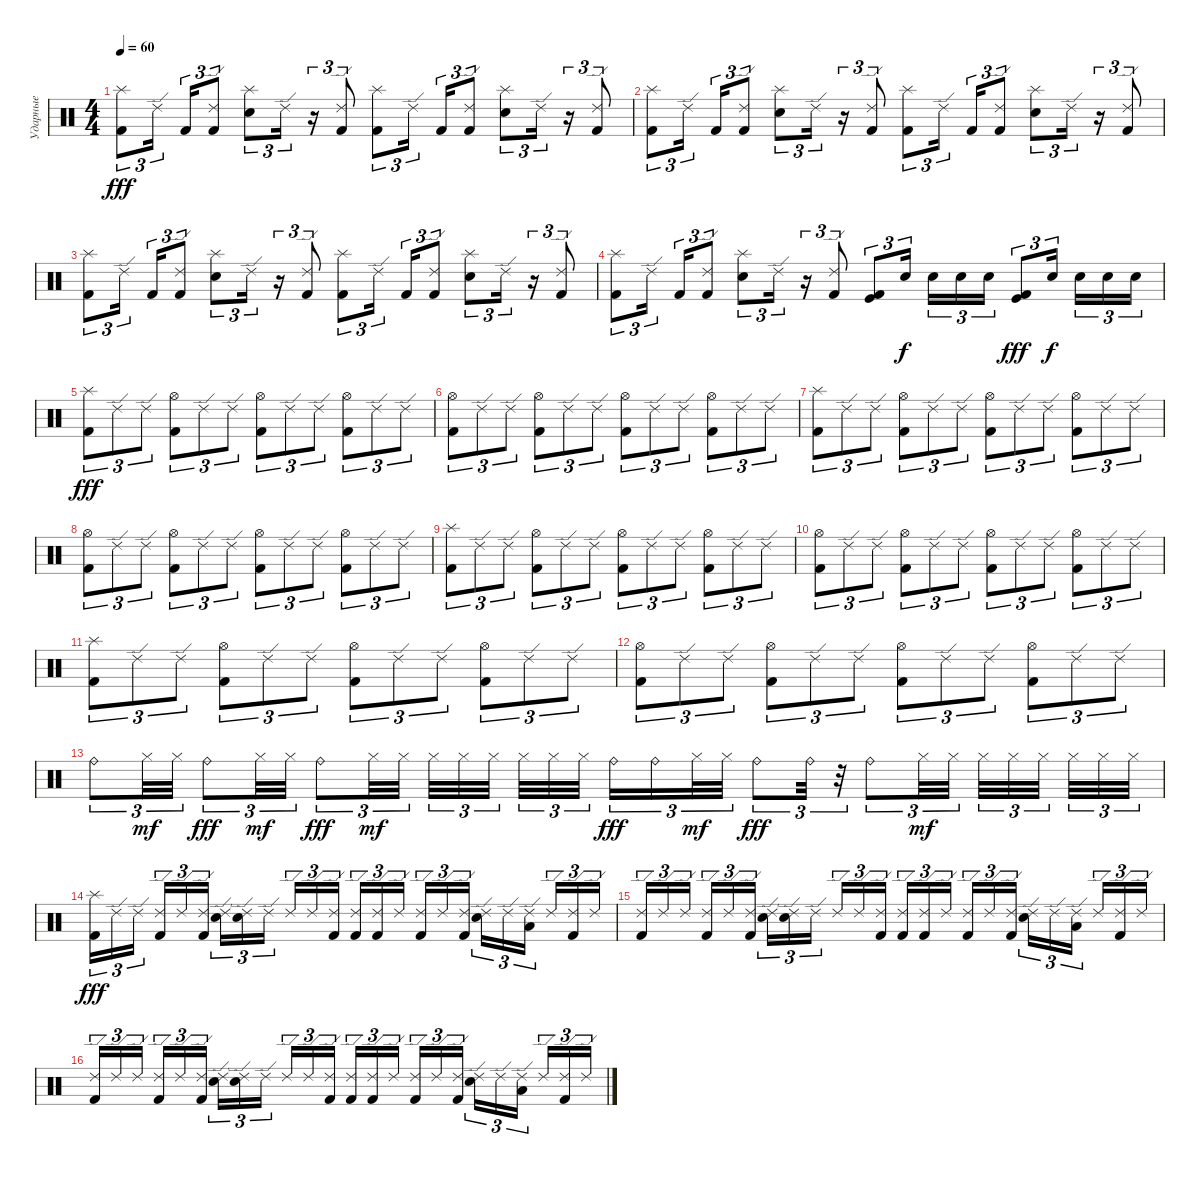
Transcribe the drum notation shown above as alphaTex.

\track ("Ударные" "Ударные") {instrument percussion}
\staff {score}
\articulation defaults
\ts (4 4)
\tempo 60
\clef neutral
\ks c
("Kick (hit) 2" "Splash (hit)").8{tu (3 2) dy fff} "Ride (edge) 2".16{tu (3 2) beam splitsecondary} "Kick (hit) 2".16{tu (3 2)} ("Kick (hit) 2" "Ride (edge) 2").8{tu (3 2)} ("Electric Snare (hit)" "Splash (hit)").8{tu (3 2)} "Ride (edge) 2".16{tu (3 2)} r.16{tu (3 2)} ("Kick (hit) 2" "Ride (edge) 2").8{tu (3 2)} ("Kick (hit) 2" "Splash (hit)").8{tu (3 2)} "Ride (edge) 2".16{tu (3 2) beam splitsecondary} "Kick (hit) 2".16{tu (3 2)} ("Kick (hit) 2" "Ride (edge) 2").8{tu (3 2)} ("Electric Snare (hit)" "Splash (hit)").8{tu (3 2)} "Ride (edge) 2".16{tu (3 2)} r.16{tu (3 2)} ("Kick (hit) 2" "Ride (edge) 2").8{tu (3 2)} |
("Kick (hit) 2" "Splash (hit)").8{tu (3 2)} "Ride (edge) 2".16{tu (3 2) beam splitsecondary} "Kick (hit) 2".16{tu (3 2)} ("Kick (hit) 2" "Ride (edge) 2").8{tu (3 2)} ("Electric Snare (hit)" "Splash (hit)").8{tu (3 2)} "Ride (edge) 2".16{tu (3 2)} r.16{tu (3 2)} ("Kick (hit) 2" "Ride (edge) 2").8{tu (3 2)} ("Kick (hit) 2" "Splash (hit)").8{tu (3 2)} "Ride (edge) 2".16{tu (3 2) beam splitsecondary} "Kick (hit) 2".16{tu (3 2)} ("Kick (hit) 2" "Ride (edge) 2").8{tu (3 2)} ("Electric Snare (hit)" "Splash (hit)").8{tu (3 2)} "Ride (edge) 2".16{tu (3 2)} r.16{tu (3 2)} ("Kick (hit) 2" "Ride (edge) 2").8{tu (3 2)} |
("Kick (hit) 2" "Splash (hit)").8{tu (3 2)} "Ride (edge) 2".16{tu (3 2) beam splitsecondary} "Kick (hit) 2".16{tu (3 2)} ("Kick (hit) 2" "Ride (edge) 2").8{tu (3 2)} ("Electric Snare (hit)" "Splash (hit)").8{tu (3 2)} "Ride (edge) 2".16{tu (3 2)} r.16{tu (3 2)} ("Kick (hit) 2" "Ride (edge) 2").8{tu (3 2)} ("Kick (hit) 2" "Splash (hit)").8{tu (3 2)} "Ride (edge) 2".16{tu (3 2) beam splitsecondary} "Kick (hit) 2".16{tu (3 2)} ("Kick (hit) 2" "Ride (edge) 2").8{tu (3 2)} ("Electric Snare (hit)" "Splash (hit)").8{tu (3 2)} "Ride (edge) 2".16{tu (3 2)} r.16{tu (3 2)} ("Kick (hit) 2" "Ride (edge) 2").8{tu (3 2)} |
("Kick (hit) 2" "Splash (hit)").8{tu (3 2)} "Ride (edge) 2".16{tu (3 2) beam splitsecondary} "Kick (hit) 2".16{tu (3 2)} ("Kick (hit) 2" "Ride (edge) 2").8{tu (3 2)} ("Electric Snare (hit)" "Splash (hit)").8{tu (3 2)} "Ride (edge) 2".16{tu (3 2)} r.16{tu (3 2)} ("Kick (hit) 2" "Ride (edge) 2").8{tu (3 2)} ("Kick (hit) 2" "Kick (hit)").8{tu (3 2)} "Electric Snare (hit)".16{tu (3 2) dy f beam splitsecondary} "Electric Snare (hit)".16{tu (3 2)} "Electric Snare (hit)".16{tu (3 2)} "Electric Snare (hit)".16{tu (3 2)} ("Kick (hit) 2" "Kick (hit)").8{tu (3 2) dy fff} "Electric Snare (hit)".16{tu (3 2) dy f beam splitsecondary} "Electric Snare (hit)".16{tu (3 2)} "Electric Snare (hit)".16{tu (3 2)} "Electric Snare (hit)".16{tu (3 2)} |
("Kick (hit) 2" "Splash (hit)").8{tu (3 2) dy fff} "Ride (edge) 2".8{tu (3 2)} "Ride (edge) 2".8{tu (3 2)} ("Kick (hit) 2" "Hi-Hat (open)").8{tu (3 2)} "Ride (edge) 2".8{tu (3 2)} "Ride (edge) 2".8{tu (3 2)} ("Kick (hit) 2" "Hi-Hat (open)").8{tu (3 2)} "Ride (edge) 2".8{tu (3 2)} "Ride (edge) 2".8{tu (3 2)} ("Kick (hit) 2" "Hi-Hat (open)").8{tu (3 2)} "Ride (edge) 2".8{tu (3 2)} "Ride (edge) 2".8{tu (3 2)} |
("Kick (hit) 2" "Hi-Hat (open)").8{tu (3 2)} "Ride (edge) 2".8{tu (3 2)} "Ride (edge) 2".8{tu (3 2)} ("Kick (hit) 2" "Hi-Hat (open)").8{tu (3 2)} "Ride (edge) 2".8{tu (3 2)} "Ride (edge) 2".8{tu (3 2)} ("Kick (hit) 2" "Hi-Hat (open)").8{tu (3 2)} "Ride (edge) 2".8{tu (3 2)} "Ride (edge) 2".8{tu (3 2)} ("Kick (hit) 2" "Hi-Hat (open)").8{tu (3 2)} "Ride (edge) 2".8{tu (3 2)} "Ride (edge) 2".8{tu (3 2)} |
("Kick (hit) 2" "Splash (hit)").8{tu (3 2)} "Ride (edge) 2".8{tu (3 2)} "Ride (edge) 2".8{tu (3 2)} ("Kick (hit) 2" "Hi-Hat (open)").8{tu (3 2)} "Ride (edge) 2".8{tu (3 2)} "Ride (edge) 2".8{tu (3 2)} ("Kick (hit) 2" "Hi-Hat (open)").8{tu (3 2)} "Ride (edge) 2".8{tu (3 2)} "Ride (edge) 2".8{tu (3 2)} ("Kick (hit) 2" "Hi-Hat (open)").8{tu (3 2)} "Ride (edge) 2".8{tu (3 2)} "Ride (edge) 2".8{tu (3 2)} |
("Kick (hit) 2" "Hi-Hat (open)").8{tu (3 2)} "Ride (edge) 2".8{tu (3 2)} "Ride (edge) 2".8{tu (3 2)} ("Kick (hit) 2" "Hi-Hat (open)").8{tu (3 2)} "Ride (edge) 2".8{tu (3 2)} "Ride (edge) 2".8{tu (3 2)} ("Kick (hit) 2" "Hi-Hat (open)").8{tu (3 2)} "Ride (edge) 2".8{tu (3 2)} "Ride (edge) 2".8{tu (3 2)} ("Kick (hit) 2" "Hi-Hat (open)").8{tu (3 2)} "Ride (edge) 2".8{tu (3 2)} "Ride (edge) 2".8{tu (3 2)} |
("Kick (hit) 2" "Splash (hit)").8{tu (3 2)} "Ride (edge) 2".8{tu (3 2)} "Ride (edge) 2".8{tu (3 2)} ("Kick (hit) 2" "Hi-Hat (open)").8{tu (3 2)} "Ride (edge) 2".8{tu (3 2)} "Ride (edge) 2".8{tu (3 2)} ("Kick (hit) 2" "Hi-Hat (open)").8{tu (3 2)} "Ride (edge) 2".8{tu (3 2)} "Ride (edge) 2".8{tu (3 2)} ("Kick (hit) 2" "Hi-Hat (open)").8{tu (3 2)} "Ride (edge) 2".8{tu (3 2)} "Ride (edge) 2".8{tu (3 2)} |
("Kick (hit) 2" "Hi-Hat (open)").8{tu (3 2)} "Ride (edge) 2".8{tu (3 2)} "Ride (edge) 2".8{tu (3 2)} ("Kick (hit) 2" "Hi-Hat (open)").8{tu (3 2)} "Ride (edge) 2".8{tu (3 2)} "Ride (edge) 2".8{tu (3 2)} ("Kick (hit) 2" "Hi-Hat (open)").8{tu (3 2)} "Ride (edge) 2".8{tu (3 2)} "Ride (edge) 2".8{tu (3 2)} ("Kick (hit) 2" "Hi-Hat (open)").8{tu (3 2)} "Ride (edge) 2".8{tu (3 2)} "Ride (edge) 2".8{tu (3 2)} |
("Kick (hit) 2" "Splash (hit)").8{tu (3 2)} "Ride (edge) 2".8{tu (3 2)} "Ride (edge) 2".8{tu (3 2)} ("Kick (hit) 2" "Hi-Hat (open)").8{tu (3 2)} "Ride (edge) 2".8{tu (3 2)} "Ride (edge) 2".8{tu (3 2)} ("Kick (hit) 2" "Hi-Hat (open)").8{tu (3 2)} "Ride (edge) 2".8{tu (3 2)} "Ride (edge) 2".8{tu (3 2)} ("Kick (hit) 2" "Hi-Hat (open)").8{tu (3 2)} "Ride (edge) 2".8{tu (3 2)} "Ride (edge) 2".8{tu (3 2)} |
("Kick (hit) 2" "Hi-Hat (open)").8{tu (3 2)} "Ride (edge) 2".8{tu (3 2)} "Ride (edge) 2".8{tu (3 2)} ("Kick (hit) 2" "Hi-Hat (open)").8{tu (3 2)} "Ride (edge) 2".8{tu (3 2)} "Ride (edge) 2".8{tu (3 2)} ("Kick (hit) 2" "Hi-Hat (open)").8{tu (3 2)} "Ride (edge) 2".8{tu (3 2)} "Ride (edge) 2".8{tu (3 2)} ("Kick (hit) 2" "Hi-Hat (open)").8{tu (3 2)} "Ride (edge) 2".8{tu (3 2)} "Ride (edge) 2".8{tu (3 2)} |
"Ride (bell)".8{tu (3 2)} "Hi-Hat (closed)".32{tu (3 2) dy mf} "Hi-Hat (closed)".32{tu (3 2)} "Ride (bell)".8{tu (3 2) dy fff} "Hi-Hat (closed)".32{tu (3 2) dy mf} "Hi-Hat (closed)".32{tu (3 2)} "Ride (bell)".8{tu (3 2) dy fff} "Hi-Hat (closed)".32{tu (3 2) dy mf} "Hi-Hat (closed)".32{tu (3 2) beam splitsecondary} "Hi-Hat (closed)".32{tu (3 2)} "Hi-Hat (closed)".32{tu (3 2)} "Hi-Hat (closed)".32{tu (3 2) beam splitsecondary} "Hi-Hat (closed)".32{tu (3 2)} "Hi-Hat (closed)".32{tu (3 2)} "Hi-Hat (closed)".32{tu (3 2)} "Ride (bell)".16{tu (3 2) dy fff} "Ride (bell)".16{tu (3 2)} "Hi-Hat (closed)".32{tu (3 2) dy mf} "Hi-Hat (closed)".32{tu (3 2)} "Ride (bell)".8{tu (3 2) dy fff} "Ride (bell)".32{tu (3 2)} r.32{tu (3 2)} "Ride (bell)".8{tu (3 2)} "Hi-Hat (closed)".32{tu (3 2) dy mf} "Hi-Hat (closed)".32{tu (3 2) beam splitsecondary} "Hi-Hat (closed)".32{tu (3 2)} "Hi-Hat (closed)".32{tu (3 2)} "Hi-Hat (closed)".32{tu (3 2) beam splitsecondary} "Hi-Hat (closed)".32{tu (3 2)} "Hi-Hat (closed)".32{tu (3 2)} "Hi-Hat (closed)".32{tu (3 2)} |
("Kick (hit) 2" "Splash (hit)").16{tu (3 2) dy fff} "Ride (edge) 2".16{tu (3 2)} "Ride (edge) 2".16{tu (3 2) beam splitsecondary} ("Kick (hit) 2" "Ride (edge) 2").16{tu (3 2)} "Ride (edge) 2".16{tu (3 2)} ("Kick (hit) 2" "Ride (edge) 2").16{tu (3 2)} ("Electric Snare (hit)" "Ride (edge) 2").16{tu (3 2)} ("Snare (hit)"{t} "Ride (edge) 2").16{tu (3 2)} "Ride (edge) 2".16{tu (3 2) beam splitsecondary} "Ride (edge) 2".16{tu (3 2)} "Ride (edge) 2".16{tu (3 2)} ("Kick (hit) 2" "Ride (edge) 2").16{tu (3 2)} ("Kick (hit) 2" "Ride (edge) 2").16{tu (3 2)} ("Kick (hit) 2" "Ride (edge) 2").16{tu (3 2)} "Ride (edge) 2".16{tu (3 2) beam splitsecondary} ("Kick (hit) 2" "Ride (edge) 2").16{tu (3 2)} "Ride (edge) 2".16{tu (3 2)} ("Kick (hit) 2" "Ride (edge) 2").16{tu (3 2)} ("Electric Snare (hit)" "Ride (edge) 2").16{tu (3 2)} "Ride (edge) 2".16{tu (3 2)} ("Low Floor Tom (hit)" "Ride (edge) 2").16{tu (3 2) beam splitsecondary} "Ride (edge) 2".16{tu (3 2)} ("Kick (hit) 2" "Ride (edge) 2").16{tu (3 2)} "Ride (edge) 2".16{tu (3 2)} |
("Kick (hit) 2" "Ride (edge) 2").16{tu (3 2)} "Ride (edge) 2".16{tu (3 2)} "Ride (edge) 2".16{tu (3 2) beam splitsecondary} ("Kick (hit) 2" "Ride (edge) 2").16{tu (3 2)} "Ride (edge) 2".16{tu (3 2)} ("Kick (hit) 2" "Ride (edge) 2").16{tu (3 2)} ("Electric Snare (hit)" "Ride (edge) 2").16{tu (3 2)} ("Snare (hit)"{t} "Ride (edge) 2").16{tu (3 2)} "Ride (edge) 2".16{tu (3 2) beam splitsecondary} "Ride (edge) 2".16{tu (3 2)} "Ride (edge) 2".16{tu (3 2)} ("Kick (hit) 2" "Ride (edge) 2").16{tu (3 2)} ("Kick (hit) 2" "Ride (edge) 2").16{tu (3 2)} ("Kick (hit) 2" "Ride (edge) 2").16{tu (3 2)} "Ride (edge) 2".16{tu (3 2) beam splitsecondary} ("Kick (hit) 2" "Ride (edge) 2").16{tu (3 2)} "Ride (edge) 2".16{tu (3 2)} ("Kick (hit) 2" "Ride (edge) 2").16{tu (3 2)} ("Electric Snare (hit)" "Ride (edge) 2").16{tu (3 2)} "Ride (edge) 2".16{tu (3 2)} ("Low Floor Tom (hit)" "Ride (edge) 2").16{tu (3 2) beam splitsecondary} "Ride (edge) 2".16{tu (3 2)} ("Kick (hit) 2" "Ride (edge) 2").16{tu (3 2)} "Ride (edge) 2".16{tu (3 2)} |
("Kick (hit) 2" "Ride (edge) 2").16{tu (3 2)} "Ride (edge) 2".16{tu (3 2)} "Ride (edge) 2".16{tu (3 2) beam splitsecondary} ("Kick (hit) 2" "Ride (edge) 2").16{tu (3 2)} "Ride (edge) 2".16{tu (3 2)} ("Kick (hit) 2" "Ride (edge) 2").16{tu (3 2)} ("Electric Snare (hit)" "Ride (edge) 2").16{tu (3 2)} ("Snare (hit)"{t} "Ride (edge) 2").16{tu (3 2)} "Ride (edge) 2".16{tu (3 2) beam splitsecondary} "Ride (edge) 2".16{tu (3 2)} "Ride (edge) 2".16{tu (3 2)} ("Kick (hit) 2" "Ride (edge) 2").16{tu (3 2)} ("Kick (hit) 2" "Ride (edge) 2").16{tu (3 2)} ("Kick (hit) 2" "Ride (edge) 2").16{tu (3 2)} "Ride (edge) 2".16{tu (3 2) beam splitsecondary} ("Kick (hit) 2" "Ride (edge) 2").16{tu (3 2)} "Ride (edge) 2".16{tu (3 2)} ("Kick (hit) 2" "Ride (edge) 2").16{tu (3 2)} ("Electric Snare (hit)" "Ride (edge) 2").16{tu (3 2)} "Ride (edge) 2".16{tu (3 2)} ("Low Floor Tom (hit)" "Ride (edge) 2").16{tu (3 2) beam splitsecondary} "Ride (edge) 2".16{tu (3 2)} ("Kick (hit) 2" "Ride (edge) 2").16{tu (3 2)} "Ride (edge) 2".16{tu (3 2)}
